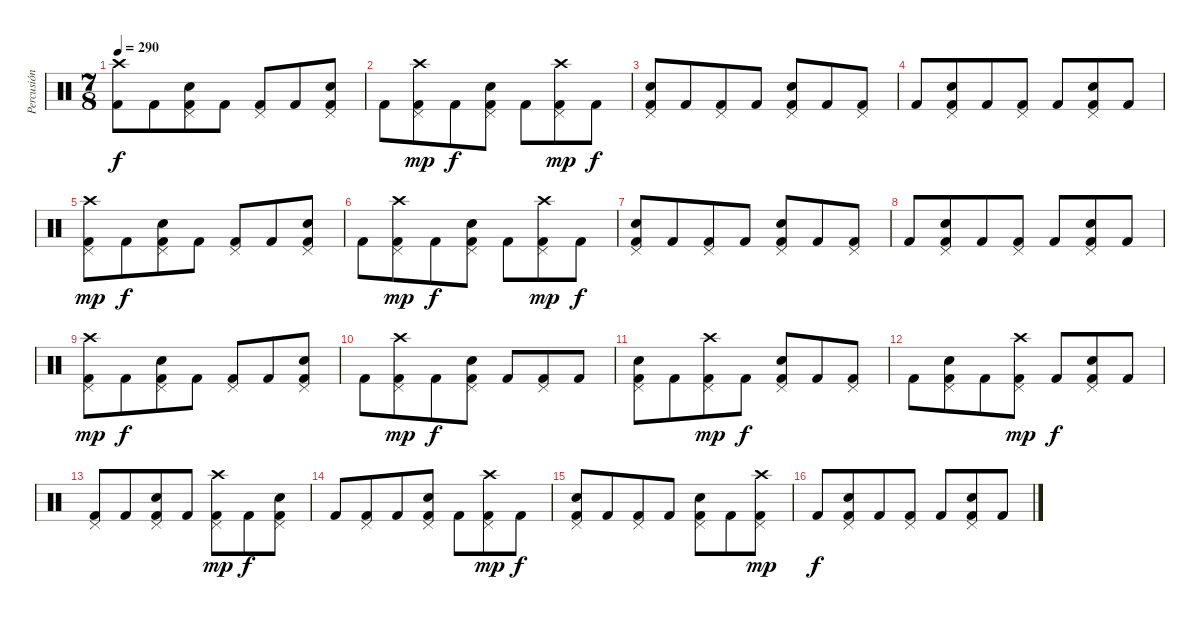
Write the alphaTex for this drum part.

\track ("Percusión" "Percusión") {instrument percussion}
\staff {score}
\articulation defaults
\ts (7 8)
\tempo 262
\tempo 290
\clef neutral
\ks c
("Crash high (hit)" "Kick (hit) 2").8{dy f} "Kick (hit) 2".8 ("Pedal Hi-Hat (hit)" "Snare (hit) 2" "Kick (hit) 2").8 "Kick (hit) 2".8 ("Pedal Hi-Hat (hit)" "Kick (hit) 2").8 "Kick (hit) 2".8 ("Pedal Hi-Hat (hit)" "Snare (hit) 2" "Kick (hit) 2").8 |
"Kick (hit) 2".8 ("Crash high (hit)" "Pedal Hi-Hat (hit)" "Kick (hit) 2").8{dy mp} "Kick (hit) 2".8{dy f} ("Pedal Hi-Hat (hit)" "Snare (hit) 2" "Kick (hit) 2").8 "Kick (hit) 2".8 ("Crash high (hit)" "Pedal Hi-Hat (hit)" "Kick (hit) 2").8{dy mp} "Kick (hit) 2".8{dy f} |
("Pedal Hi-Hat (hit)" "Snare (hit) 2" "Kick (hit) 2").8 "Kick (hit) 2".8 ("Pedal Hi-Hat (hit)" "Kick (hit) 2").8 "Kick (hit) 2".8 ("Pedal Hi-Hat (hit)" "Snare (hit) 2" "Kick (hit) 2").8 "Kick (hit) 2".8 ("Pedal Hi-Hat (hit)" "Kick (hit) 2").8 |
"Kick (hit) 2".8 ("Pedal Hi-Hat (hit)" "Snare (hit) 2" "Kick (hit) 2").8 "Kick (hit) 2".8 ("Pedal Hi-Hat (hit)" "Kick (hit) 2").8 "Kick (hit) 2".8 ("Pedal Hi-Hat (hit)" "Snare (hit) 2" "Kick (hit) 2").8 "Kick (hit) 2".8 |
("Crash high (hit)" "Pedal Hi-Hat (hit)" "Kick (hit) 2").8{dy mp} "Kick (hit) 2".8{dy f} ("Pedal Hi-Hat (hit)" "Snare (hit) 2" "Kick (hit) 2").8 "Kick (hit) 2".8 ("Pedal Hi-Hat (hit)" "Kick (hit) 2").8 "Kick (hit) 2".8 ("Pedal Hi-Hat (hit)" "Snare (hit) 2" "Kick (hit) 2").8 |
"Kick (hit) 2".8 ("Crash high (hit)" "Pedal Hi-Hat (hit)" "Kick (hit) 2").8{dy mp} "Kick (hit) 2".8{dy f} ("Pedal Hi-Hat (hit)" "Snare (hit) 2" "Kick (hit) 2").8 "Kick (hit) 2".8 ("Crash high (hit)" "Pedal Hi-Hat (hit)" "Kick (hit) 2").8{dy mp} "Kick (hit) 2".8{dy f} |
("Pedal Hi-Hat (hit)" "Snare (hit) 2" "Kick (hit) 2").8 "Kick (hit) 2".8 ("Pedal Hi-Hat (hit)" "Kick (hit) 2").8 "Kick (hit) 2".8 ("Pedal Hi-Hat (hit)" "Snare (hit) 2" "Kick (hit) 2").8 "Kick (hit) 2".8 ("Pedal Hi-Hat (hit)" "Kick (hit) 2").8 |
"Kick (hit) 2".8 ("Pedal Hi-Hat (hit)" "Snare (hit) 2" "Kick (hit) 2").8 "Kick (hit) 2".8 ("Pedal Hi-Hat (hit)" "Kick (hit) 2").8 "Kick (hit) 2".8 ("Pedal Hi-Hat (hit)" "Snare (hit) 2" "Kick (hit) 2").8 "Kick (hit) 2".8 |
("Crash high (hit)" "Pedal Hi-Hat (hit)" "Kick (hit) 2").8{dy mp} "Kick (hit) 2".8{dy f} ("Pedal Hi-Hat (hit)" "Snare (hit) 2" "Kick (hit) 2").8 "Kick (hit) 2".8 ("Pedal Hi-Hat (hit)" "Kick (hit) 2").8 "Kick (hit) 2".8 ("Pedal Hi-Hat (hit)" "Snare (hit) 2" "Kick (hit) 2").8 |
"Kick (hit) 2".8 ("Crash high (hit)" "Pedal Hi-Hat (hit)" "Kick (hit) 2").8{dy mp} "Kick (hit) 2".8{dy f} ("Pedal Hi-Hat (hit)" "Snare (hit) 2" "Kick (hit) 2").8 "Kick (hit) 2".8 ("Pedal Hi-Hat (hit)" "Kick (hit) 2").8 "Kick (hit) 2".8 |
("Pedal Hi-Hat (hit)" "Snare (hit) 2" "Kick (hit) 2").8 "Kick (hit) 2".8 ("Crash high (hit)" "Pedal Hi-Hat (hit)" "Kick (hit) 2").8{dy mp} "Kick (hit) 2".8{dy f} ("Pedal Hi-Hat (hit)" "Snare (hit) 2" "Kick (hit) 2").8 "Kick (hit) 2".8 ("Pedal Hi-Hat (hit)" "Kick (hit) 2").8 |
"Kick (hit) 2".8 ("Pedal Hi-Hat (hit)" "Snare (hit) 2" "Kick (hit) 2").8 "Kick (hit) 2".8 ("Crash high (hit)" "Pedal Hi-Hat (hit)" "Kick (hit) 2").8{dy mp} "Kick (hit) 2".8{dy f} ("Pedal Hi-Hat (hit)" "Snare (hit) 2" "Kick (hit) 2").8 "Kick (hit) 2".8 |
("Pedal Hi-Hat (hit)" "Kick (hit) 2").8 "Kick (hit) 2".8 ("Pedal Hi-Hat (hit)" "Snare (hit) 2" "Kick (hit) 2").8 "Kick (hit) 2".8 ("Crash high (hit)" "Pedal Hi-Hat (hit)" "Kick (hit) 2").8{dy mp} "Kick (hit) 2".8{dy f} ("Pedal Hi-Hat (hit)" "Snare (hit) 2" "Kick (hit) 2").8 |
"Kick (hit) 2".8 ("Pedal Hi-Hat (hit)" "Kick (hit) 2").8 "Kick (hit) 2".8 ("Pedal Hi-Hat (hit)" "Snare (hit) 2" "Kick (hit) 2").8 "Kick (hit) 2".8 ("Crash high (hit)" "Pedal Hi-Hat (hit)" "Kick (hit) 2").8{dy mp} "Kick (hit) 2".8{dy f} |
("Pedal Hi-Hat (hit)" "Snare (hit) 2" "Kick (hit) 2").8 "Kick (hit) 2".8 ("Pedal Hi-Hat (hit)" "Kick (hit) 2").8 "Kick (hit) 2".8 ("Pedal Hi-Hat (hit)" "Snare (hit) 2" "Kick (hit) 2").8 "Kick (hit) 2".8 ("Crash high (hit)" "Pedal Hi-Hat (hit)" "Kick (hit) 2").8{dy mp} |
"Kick (hit) 2".8{dy f} ("Pedal Hi-Hat (hit)" "Snare (hit) 2" "Kick (hit) 2").8 "Kick (hit) 2".8 ("Pedal Hi-Hat (hit)" "Kick (hit) 2").8 "Kick (hit) 2".8 ("Pedal Hi-Hat (hit)" "Snare (hit) 2" "Kick (hit) 2").8 "Kick (hit) 2".8
